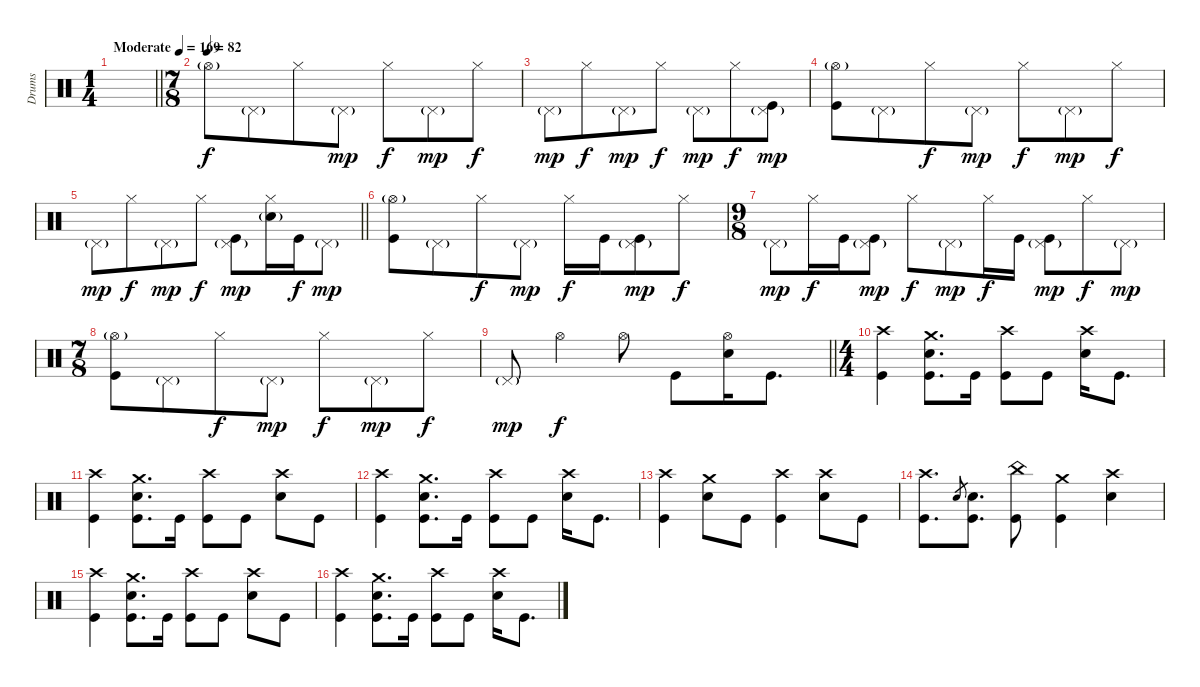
\track ("Drums" "Drums") {instrument percussion}
\staff
\articulation defaults
\ts (1 4)
\tempo (169 "Moderate")
\tempo 82
\tempo (169 "Moderate")
\clef neutral
\barLineRight lightlight
\ks c
|
\ts (7 8)
\tempo (82)
"Hi-Hat (open)"{g}.8 "Pedal Hi-Hat (hit)"{g}.8 "Hi-Hat (closed)".8{dy f} "Pedal Hi-Hat (hit)"{g}.8{dy mp} "Hi-Hat (closed)".8{dy f} "Pedal Hi-Hat (hit)"{g}.8{dy mp} "Hi-Hat (closed)".8{dy f} |
"Pedal Hi-Hat (hit)"{g}.8{dy mp} "Hi-Hat (closed)".8{dy f} "Pedal Hi-Hat (hit)"{g}.8{dy mp} "Hi-Hat (closed)".8{dy f} "Pedal Hi-Hat (hit)"{g}.8{dy mp} "Hi-Hat (closed)".8{dy f} ("Pedal Hi-Hat (hit)"{g} "Kick (hit)").8{dy mp} |
("Hi-Hat (open)"{g} "Kick (hit)").8 "Pedal Hi-Hat (hit)"{g}.8 "Hi-Hat (closed)".8{dy f} "Pedal Hi-Hat (hit)"{g}.8{dy mp} "Hi-Hat (closed)".8{dy f} "Pedal Hi-Hat (hit)"{g}.8{dy mp} "Hi-Hat (closed)".8{dy f} |
\barLineRight lightlight "Pedal Hi-Hat (hit)"{g}.8{dy mp} "Hi-Hat (closed)".8{dy f} "Pedal Hi-Hat (hit)"{g}.8{dy mp} "Hi-Hat (closed)".8{dy f}
("Pedal Hi-Hat (hit)"{g} "Kick (hit)").8{dy mp} ("Hi-Hat (closed)" "Electric Snare (hit)"{g}).16 "Kick (hit)".16{dy f} "Pedal Hi-Hat (hit)"{g}.8{dy mp} |
("Hi-Hat (open)"{g} "Kick (hit)").8 "Pedal Hi-Hat (hit)"{g}.8 "Hi-Hat (closed)".8{dy f} "Pedal Hi-Hat (hit)"{g}.8{dy mp} "Hi-Hat (closed)".16{dy f} "Kick (hit)".16 ("Pedal Hi-Hat (hit)"{g} "Kick (hit)").8{dy mp} "Hi-Hat (closed)".8{dy f} |
\ts (9 8)
"Pedal Hi-Hat (hit)"{g}.8{dy mp} "Hi-Hat (closed)".16{dy f} "Kick (hit)".16 ("Pedal Hi-Hat (hit)"{g} "Kick (hit)").8{dy mp} "Hi-Hat (closed)".8{dy f} "Pedal Hi-Hat (hit)"{g}.8{dy mp} "Hi-Hat (closed)".16{dy f} "Kick (hit)".16 ("Pedal Hi-Hat (hit)"{g} "Kick (hit)").8{dy mp} "Hi-Hat (closed)".8{dy f} "Pedal Hi-Hat (hit)"{g}.8{dy mp} |
\ts (7 8)
("Hi-Hat (open)"{g} "Kick (hit)").8 "Pedal Hi-Hat (hit)"{g}.8 "Hi-Hat (closed)".8{dy f} "Pedal Hi-Hat (hit)"{g}.8{dy mp} "Hi-Hat (closed)".8{dy f} "Pedal Hi-Hat (hit)"{g}.8{dy mp} "Hi-Hat (closed)".8{dy f} |
\barLineRight lightlight "Pedal Hi-Hat (hit)"{g}.8{dy mp} "Hi-Hat (open)".4{dy f} "Hi-Hat (open)".8 "Kick (hit)".8
("Hi-Hat (open)" "Electric Snare (hit)").16 "Kick (hit)".8{d} |
\ts (4 4)
\section ("" "")
("Crash high (hit)" "Kick (hit)").4 ("Crash medium (hit)" "Electric Snare (hit)" "Kick (hit)").8{d} "Kick (hit)".16 ("Crash high (hit)" "Kick (hit)").8 "Kick (hit)".8 ("Crash high (hit)" "Electric Snare (hit)").16 "Kick (hit)".8{d} |
("Crash high (hit)" "Kick (hit)").4 ("Crash medium (hit)" "Electric Snare (hit)" "Kick (hit)").8{d} "Kick (hit)".16 ("Crash high (hit)" "Kick (hit)").8 "Kick (hit)".8 ("Crash high (hit)" "Electric Snare (hit)").8 "Kick (hit)".8 |
("Crash high (hit)" "Kick (hit)").4 ("Crash medium (hit)" "Electric Snare (hit)" "Kick (hit)").8{d} "Kick (hit)".16 ("Crash high (hit)" "Kick (hit)").8 "Kick (hit)".8 ("Crash high (hit)" "Electric Snare (hit)").16 "Kick (hit)".8{d} |
("Crash high (hit)" "Kick (hit)").4 ("Crash medium (hit)" "Electric Snare (hit)").8 "Kick (hit)".8 ("Crash high (hit)" "Kick (hit)").4 ("Crash high (hit)" "Electric Snare (hit)").8 "Kick (hit)".8 |
("Crash high (hit)" "Kick (hit)").8{d} "Electric Snare (hit)".8{gr} ("Electric Snare (hit)" "Kick (hit)").8{d} ("China (hit)" "Kick (hit)").8 ("Crash medium (hit)" "Kick (hit)").4 ("Crash high (hit)" "Electric Snare (hit)").4 |
("Crash high (hit)" "Kick (hit)").4 ("Crash medium (hit)" "Electric Snare (hit)" "Kick (hit)").8{d} "Kick (hit)".16 ("Crash high (hit)" "Kick (hit)").8 "Kick (hit)".8 ("Crash high (hit)" "Electric Snare (hit)").8 "Kick (hit)".8 |
("Crash high (hit)" "Kick (hit)").4 ("Crash medium (hit)" "Electric Snare (hit)" "Kick (hit)").8{d} "Kick (hit)".16 ("Crash high (hit)" "Kick (hit)").8 "Kick (hit)".8 ("Crash high (hit)" "Electric Snare (hit)").16 "Kick (hit)".8{d}
